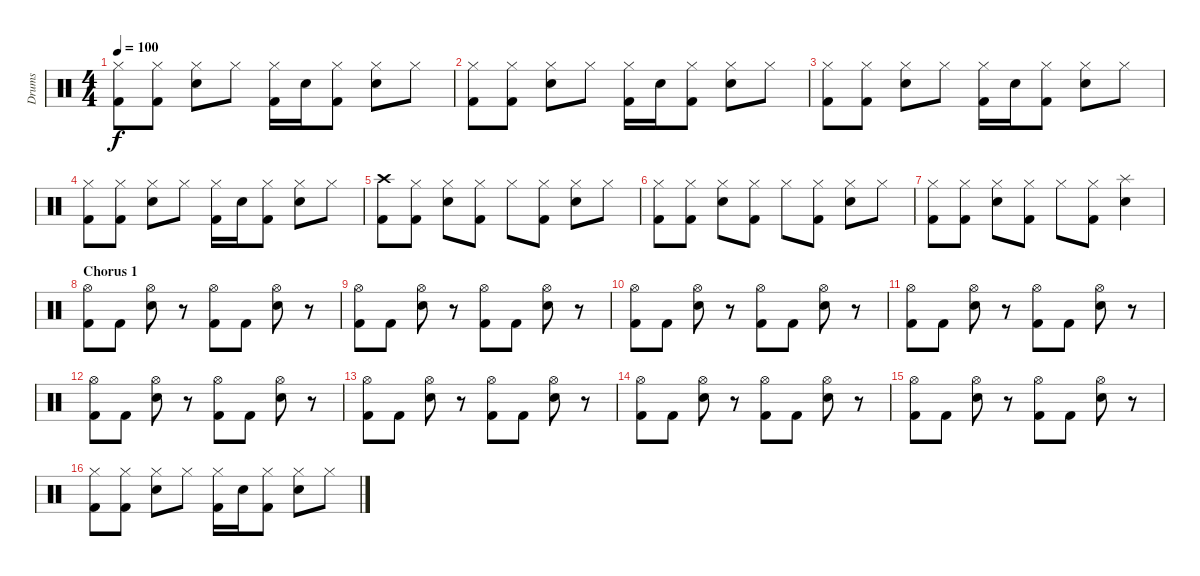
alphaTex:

\track ("Drums" "Drums") {instrument percussion}
\staff {score}
\articulation defaults
\ts (4 4)
\tempo 100
\clef neutral
\ks c
("Hi-Hat (closed)" "Kick (hit) 2").8{dy f} ("Hi-Hat (closed)" "Kick (hit) 2").8 ("Hi-Hat (closed)" "Snare (hit) 2").8 "Hi-Hat (closed)".8 ("Hi-Hat (closed)" "Kick (hit) 2").16 "Snare (hit) 2".16 ("Hi-Hat (closed)" "Kick (hit) 2").8 ("Hi-Hat (closed)" "Snare (hit) 2").8 "Hi-Hat (closed)".8 |
("Hi-Hat (closed)" "Kick (hit) 2").8 ("Hi-Hat (closed)" "Kick (hit) 2").8 ("Hi-Hat (closed)" "Snare (hit) 2").8 "Hi-Hat (closed)".8 ("Hi-Hat (closed)" "Kick (hit) 2").16 "Snare (hit) 2".16 ("Hi-Hat (closed)" "Kick (hit) 2").8 ("Hi-Hat (closed)" "Snare (hit) 2").8 "Hi-Hat (closed)".8 |
("Hi-Hat (closed)" "Kick (hit) 2").8 ("Hi-Hat (closed)" "Kick (hit) 2").8 ("Hi-Hat (closed)" "Snare (hit) 2").8 "Hi-Hat (closed)".8 ("Hi-Hat (closed)" "Kick (hit) 2").16 "Snare (hit) 2".16 ("Hi-Hat (closed)" "Kick (hit) 2").8 ("Hi-Hat (closed)" "Snare (hit) 2").8 "Hi-Hat (closed)".8 |
("Hi-Hat (closed)" "Kick (hit) 2").8 ("Hi-Hat (closed)" "Kick (hit) 2").8 ("Hi-Hat (closed)" "Snare (hit) 2").8 "Hi-Hat (closed)".8 ("Hi-Hat (closed)" "Kick (hit) 2").16 "Snare (hit) 2".16 ("Hi-Hat (closed)" "Kick (hit) 2").8 ("Hi-Hat (closed)" "Snare (hit) 2").8 "Hi-Hat (closed)".8 |
("Crash high (hit)" "Kick (hit) 2").8 ("Hi-Hat (closed)" "Kick (hit) 2").8 ("Hi-Hat (closed)" "Snare (hit) 2").8 ("Hi-Hat (closed)" "Kick (hit) 2").8 "Hi-Hat (closed)".8 ("Hi-Hat (closed)" "Kick (hit) 2").8 ("Hi-Hat (closed)" "Snare (hit) 2").8 "Hi-Hat (closed)".8 |
("Hi-Hat (closed)" "Kick (hit) 2").8 ("Hi-Hat (closed)" "Kick (hit) 2").8 ("Hi-Hat (closed)" "Snare (hit) 2").8 ("Hi-Hat (closed)" "Kick (hit) 2").8 "Hi-Hat (closed)".8 ("Hi-Hat (closed)" "Kick (hit) 2").8 ("Hi-Hat (closed)" "Snare (hit) 2").8 "Hi-Hat (closed)".8 |
("Hi-Hat (closed)" "Kick (hit) 2").8 ("Hi-Hat (closed)" "Kick (hit) 2").8 ("Hi-Hat (closed)" "Snare (hit) 2").8 ("Hi-Hat (closed)" "Kick (hit) 2").8 "Hi-Hat (closed)".8 ("Hi-Hat (closed)" "Kick (hit) 2").8 ("Splash (hit)" "Snare (hit) 2").4 |
\section ("" "Chorus 1")
("Hi-Hat (open)" "Kick (hit) 2").8 "Kick (hit) 2".8 ("Hi-Hat (open)" "Snare (hit) 2").8 r.8 ("Hi-Hat (open)" "Kick (hit) 2").8 "Kick (hit) 2".8 ("Hi-Hat (open)" "Snare (hit) 2").8 r.8 |
("Hi-Hat (open)" "Kick (hit) 2").8 "Kick (hit) 2".8 ("Hi-Hat (open)" "Snare (hit) 2").8 r.8 ("Hi-Hat (open)" "Kick (hit) 2").8 "Kick (hit) 2".8 ("Hi-Hat (open)" "Snare (hit) 2").8 r.8 |
("Hi-Hat (open)" "Kick (hit) 2").8 "Kick (hit) 2".8 ("Hi-Hat (open)" "Snare (hit) 2").8 r.8 ("Hi-Hat (open)" "Kick (hit) 2").8 "Kick (hit) 2".8 ("Hi-Hat (open)" "Snare (hit) 2").8 r.8 |
("Hi-Hat (open)" "Kick (hit) 2").8 "Kick (hit) 2".8 ("Hi-Hat (open)" "Snare (hit) 2").8 r.8 ("Hi-Hat (open)" "Kick (hit) 2").8 "Kick (hit) 2".8 ("Hi-Hat (open)" "Snare (hit) 2").8 r.8 |
("Hi-Hat (open)" "Kick (hit) 2").8 "Kick (hit) 2".8 ("Hi-Hat (open)" "Snare (hit) 2").8 r.8 ("Hi-Hat (open)" "Kick (hit) 2").8 "Kick (hit) 2".8 ("Hi-Hat (open)" "Snare (hit) 2").8 r.8 |
("Hi-Hat (open)" "Kick (hit) 2").8 "Kick (hit) 2".8 ("Hi-Hat (open)" "Snare (hit) 2").8 r.8 ("Hi-Hat (open)" "Kick (hit) 2").8 "Kick (hit) 2".8 ("Hi-Hat (open)" "Snare (hit) 2").8 r.8 |
("Hi-Hat (open)" "Kick (hit) 2").8 "Kick (hit) 2".8 ("Hi-Hat (open)" "Snare (hit) 2").8 r.8 ("Hi-Hat (open)" "Kick (hit) 2").8 "Kick (hit) 2".8 ("Hi-Hat (open)" "Snare (hit) 2").8 r.8 |
("Hi-Hat (open)" "Kick (hit) 2").8 "Kick (hit) 2".8 ("Hi-Hat (open)" "Snare (hit) 2").8 r.8 ("Hi-Hat (open)" "Kick (hit) 2").8 "Kick (hit) 2".8 ("Hi-Hat (open)" "Snare (hit) 2").8 r.8 |
("Hi-Hat (closed)" "Kick (hit) 2").8 ("Hi-Hat (closed)" "Kick (hit) 2").8 ("Hi-Hat (closed)" "Snare (hit) 2").8 "Hi-Hat (closed)".8 ("Hi-Hat (closed)" "Kick (hit) 2").16 "Snare (hit) 2".16 ("Hi-Hat (closed)" "Kick (hit) 2").8 ("Hi-Hat (closed)" "Snare (hit) 2").8 "Hi-Hat (closed)".8
